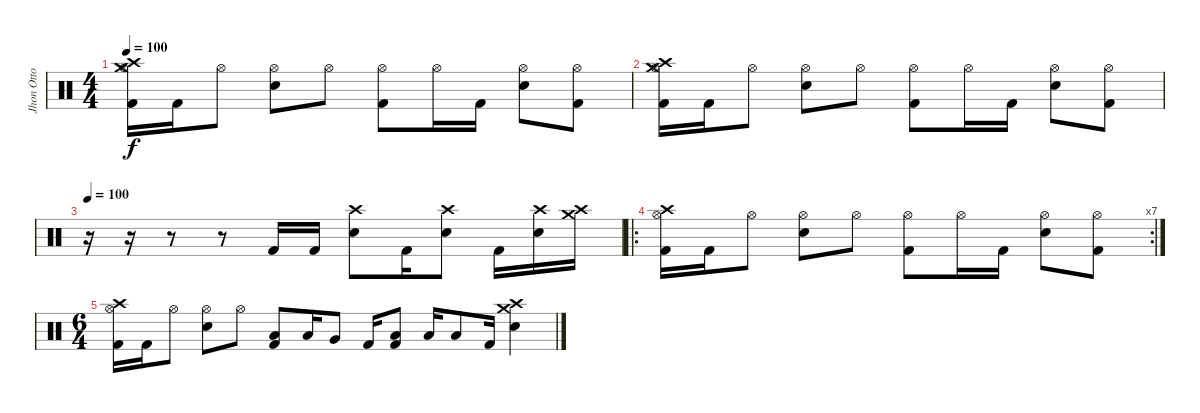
\track ("Jhon Otto" "Jhon Otto") {instrument percussion}
\staff {score}
\articulation defaults
\ts (4 4)
\tempo 100
\clef neutral
\ks c
("Crash high (hit)" "Hi-Hat (open)" "Kick (hit) 2" "Crash medium (hit)").16{dy f} "Kick (hit) 2".16 "Hi-Hat (open)".8 ("Hi-Hat (open)" "Snare (hit) 2").8 "Hi-Hat (open)".8 ("Hi-Hat (open)" "Kick (hit) 2").8 "Hi-Hat (open)".16 "Kick (hit) 2".16 ("Hi-Hat (open)" "Snare (hit) 2").8 ("Hi-Hat (open)" "Kick (hit) 2").8 |
("Crash high (hit)" "Hi-Hat (open)" "Kick (hit) 2" "Crash medium (hit)").16 "Kick (hit) 2".16 "Hi-Hat (open)".8 ("Hi-Hat (open)" "Snare (hit) 2").8 "Hi-Hat (open)".8 ("Hi-Hat (open)" "Kick (hit) 2").8 "Hi-Hat (open)".16 "Kick (hit) 2".16 ("Hi-Hat (open)" "Snare (hit) 2").8 ("Hi-Hat (open)" "Kick (hit) 2").8 |
\tempo 100
r.16 r.16 r.8 r.8 "Kick (hit) 2".16 "Kick (hit) 2".16 ("Crash high (hit)" "Snare (hit) 2").8 "Kick (hit) 2".16 ("Crash high (hit)" "Snare (hit) 2").8 "Kick (hit) 2".16 ("Crash high (hit)" "Snare (hit) 2").16 ("Crash high (hit)" "Crash medium (hit)").16 |
\ro
\rc 7
("Crash high (hit)" "Hi-Hat (open)" "Kick (hit) 2").16 "Kick (hit) 2".16 "Hi-Hat (open)".8 ("Hi-Hat (open)" "Snare (hit) 2").8 "Hi-Hat (open)".8 ("Hi-Hat (open)" "Kick (hit) 2").8 "Hi-Hat (open)".16 "Kick (hit) 2".16 ("Hi-Hat (open)" "Snare (hit) 2").8 ("Hi-Hat (open)" "Kick (hit) 2").8 |
\ts (6 4)
("Crash high (hit)" "Hi-Hat (open)" "Kick (hit) 2").16 "Kick (hit) 2".16 "Hi-Hat (open)".8 ("Hi-Hat (open)" "Snare (hit) 2").8 "Hi-Hat (open)".8 ("Low Floor Tom (hit)" "Kick (hit) 2").8 "Low Floor Tom (hit)".16 "Very Low Tom (hit)".8 "Kick (hit) 2".16 ("Low Floor Tom (hit)" "Kick (hit) 2").8 "Low Floor Tom (hit)".16 "Low Floor Tom (hit)".8 "Kick (hit) 2".16 ("Crash medium (hit)" "Snare (hit) 2" "Crash high (hit)").4
